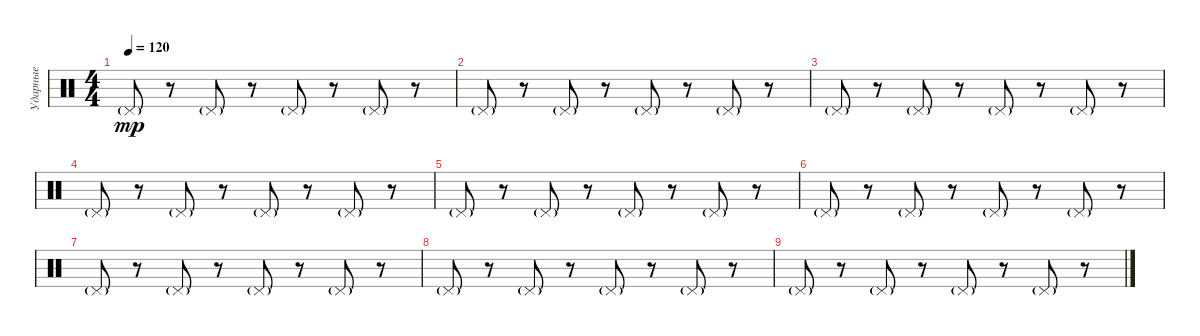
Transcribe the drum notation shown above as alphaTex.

\track ("Ударные" "Ударные") {instrument percussion}
\staff {score}
\articulation defaults
\ts (4 4)
\tempo 120
\clef neutral
\ks c "Pedal Hi-Hat (hit)"{g}.8{dy mp}
r.8 "Pedal Hi-Hat (hit)"{g}.8 r.8 "Pedal Hi-Hat (hit)"{g}.8 r.8 "Pedal Hi-Hat (hit)"{g}.8 r.8 |
"Pedal Hi-Hat (hit)"{g}.8 r.8 "Pedal Hi-Hat (hit)"{g}.8 r.8 "Pedal Hi-Hat (hit)"{g}.8 r.8 "Pedal Hi-Hat (hit)"{g}.8 r.8 |
"Pedal Hi-Hat (hit)"{g}.8 r.8 "Pedal Hi-Hat (hit)"{g}.8 r.8 "Pedal Hi-Hat (hit)"{g}.8 r.8 "Pedal Hi-Hat (hit)"{g}.8 r.8 |
"Pedal Hi-Hat (hit)"{g}.8 r.8 "Pedal Hi-Hat (hit)"{g}.8 r.8 "Pedal Hi-Hat (hit)"{g}.8 r.8 "Pedal Hi-Hat (hit)"{g}.8 r.8 |
"Pedal Hi-Hat (hit)"{g}.8 r.8 "Pedal Hi-Hat (hit)"{g}.8 r.8 "Pedal Hi-Hat (hit)"{g}.8 r.8 "Pedal Hi-Hat (hit)"{g}.8 r.8 |
"Pedal Hi-Hat (hit)"{g}.8 r.8 "Pedal Hi-Hat (hit)"{g}.8 r.8 "Pedal Hi-Hat (hit)"{g}.8 r.8 "Pedal Hi-Hat (hit)"{g}.8 r.8 |
"Pedal Hi-Hat (hit)"{g}.8 r.8 "Pedal Hi-Hat (hit)"{g}.8 r.8 "Pedal Hi-Hat (hit)"{g}.8 r.8 "Pedal Hi-Hat (hit)"{g}.8 r.8 |
"Pedal Hi-Hat (hit)"{g}.8 r.8 "Pedal Hi-Hat (hit)"{g}.8 r.8 "Pedal Hi-Hat (hit)"{g}.8 r.8 "Pedal Hi-Hat (hit)"{g}.8 r.8 |
"Pedal Hi-Hat (hit)"{g}.8 r.8 "Pedal Hi-Hat (hit)"{g}.8 r.8 "Pedal Hi-Hat (hit)"{g}.8 r.8 "Pedal Hi-Hat (hit)"{g}.8 r.8
